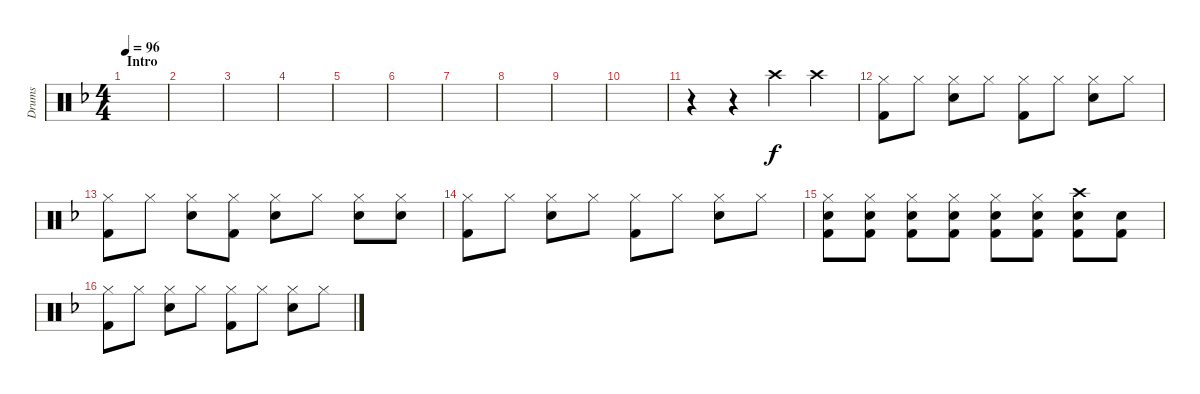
\track ("Drums" "Drums") {instrument percussion}
\staff {score}
\articulation defaults
\ts (4 4)
\section ("" "Intro")
\tempo 96
\clef neutral
\ks dminor
|
|
|
|
|
|
|
|
|
|
r.4 r.4 "Crash high (hit)".4 "Crash high (hit)".4 |
("Hi-Hat (closed)" "Kick (hit) 2").8 "Hi-Hat (closed)".8 ("Hi-Hat (closed)" "Snare (hit) 2").8 "Hi-Hat (closed)".8 ("Hi-Hat (closed)" "Kick (hit) 2").8 "Hi-Hat (closed)".8 ("Hi-Hat (closed)" "Snare (hit) 2").8 "Hi-Hat (closed)".8 |
("Hi-Hat (closed)" "Kick (hit) 2").8 "Hi-Hat (closed)".8 ("Hi-Hat (closed)" "Snare (hit) 2").8 ("Hi-Hat (closed)" "Kick (hit) 2").8 ("Hi-Hat (closed)" "Snare (hit) 2").8 "Hi-Hat (closed)".8 ("Hi-Hat (closed)" "Snare (hit) 2").8 ("Hi-Hat (closed)" "Snare (hit) 2").8 |
("Hi-Hat (closed)" "Kick (hit) 2").8 "Hi-Hat (closed)".8 ("Hi-Hat (closed)" "Snare (hit) 2").8 "Hi-Hat (closed)".8 ("Hi-Hat (closed)" "Kick (hit) 2").8 "Hi-Hat (closed)".8 ("Hi-Hat (closed)" "Snare (hit) 2").8 "Hi-Hat (closed)".8 |
("Hi-Hat (closed)" "Snare (hit) 2" "Kick (hit) 2").8 ("Hi-Hat (closed)" "Snare (hit) 2" "Kick (hit) 2").8 ("Hi-Hat (closed)" "Snare (hit) 2" "Kick (hit) 2").8 ("Hi-Hat (closed)" "Snare (hit) 2" "Kick (hit) 2").8 ("Hi-Hat (closed)" "Snare (hit) 2" "Kick (hit) 2").8 ("Hi-Hat (closed)" "Snare (hit) 2" "Kick (hit) 2").8 ("Crash high (hit)" "Snare (hit) 2" "Kick (hit) 2").8 ("Snare (hit) 2" "Kick (hit) 2").8 |
("Hi-Hat (closed)" "Kick (hit) 2").8 "Hi-Hat (closed)".8 ("Hi-Hat (closed)" "Snare (hit) 2").8 "Hi-Hat (closed)".8 ("Hi-Hat (closed)" "Kick (hit) 2").8 "Hi-Hat (closed)".8 ("Hi-Hat (closed)" "Snare (hit) 2").8 "Hi-Hat (closed)".8
